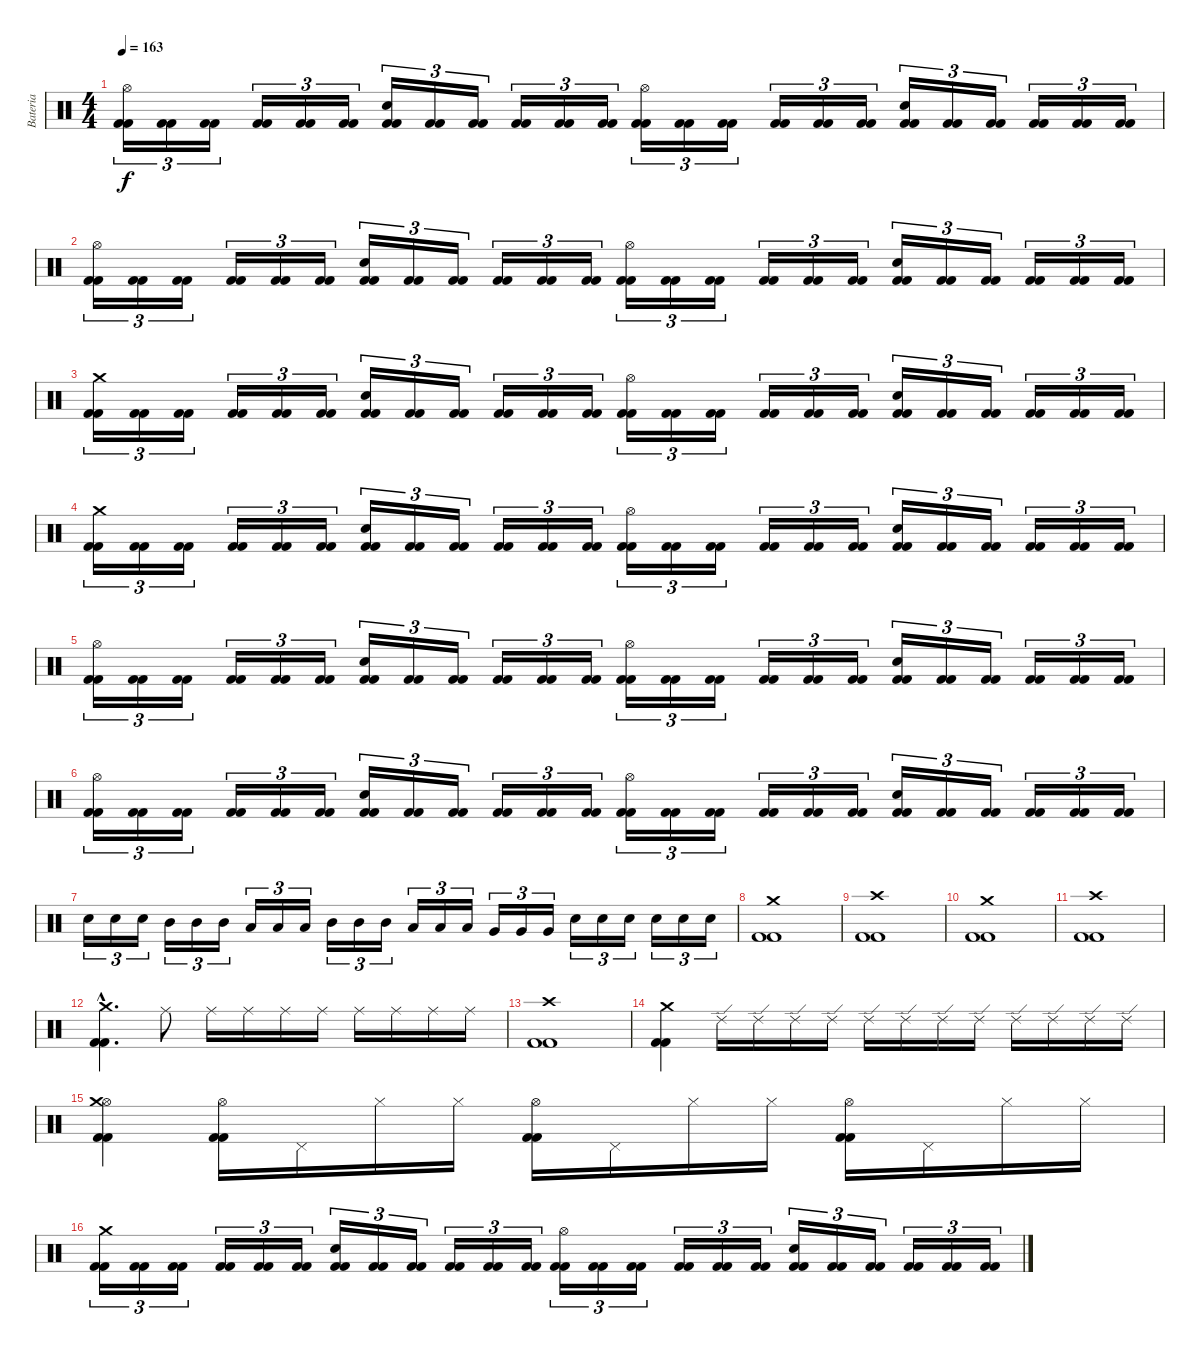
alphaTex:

\track ("Bateria" "Bateria") {instrument percussion}
\staff {score}
\articulation defaults
\ts (4 4)
\tempo 163
\clef neutral
\ks c
("Kick (hit) 2" "Kick (hit) 2" "Hi-Hat (open)").16{tu (3 2) dy f} ("Kick (hit) 2" "Kick (hit) 2").16{tu (3 2)} ("Kick (hit) 2" "Kick (hit) 2").16{tu (3 2)} ("Kick (hit) 2" "Kick (hit) 2").16{tu (3 2)} ("Kick (hit) 2" "Kick (hit) 2").16{tu (3 2)} ("Kick (hit) 2" "Kick (hit) 2").16{tu (3 2)} ("Kick (hit) 2" "Kick (hit) 2" "Snare (hit) 2").16{tu (3 2)} ("Kick (hit) 2" "Kick (hit) 2").16{tu (3 2)} ("Kick (hit) 2" "Kick (hit) 2").16{tu (3 2)} ("Kick (hit) 2" "Kick (hit) 2").16{tu (3 2)} ("Kick (hit) 2" "Kick (hit) 2").16{tu (3 2)} ("Kick (hit) 2" "Kick (hit) 2").16{tu (3 2)} ("Kick (hit) 2" "Kick (hit) 2" "Hi-Hat (open)").16{tu (3 2)} ("Kick (hit) 2" "Kick (hit) 2").16{tu (3 2)} ("Kick (hit) 2" "Kick (hit) 2").16{tu (3 2)} ("Kick (hit) 2" "Kick (hit) 2").16{tu (3 2)} ("Kick (hit) 2" "Kick (hit) 2").16{tu (3 2)} ("Kick (hit) 2" "Kick (hit) 2").16{tu (3 2)} ("Kick (hit) 2" "Kick (hit) 2" "Snare (hit) 2").16{tu (3 2)} ("Kick (hit) 2" "Kick (hit) 2").16{tu (3 2)} ("Kick (hit) 2" "Kick (hit) 2").16{tu (3 2)} ("Kick (hit) 2" "Kick (hit) 2").16{tu (3 2)} ("Kick (hit) 2" "Kick (hit) 2").16{tu (3 2)} ("Kick (hit) 2" "Kick (hit) 2").16{tu (3 2)} |
("Kick (hit) 2" "Kick (hit) 2" "Hi-Hat (open)").16{tu (3 2)} ("Kick (hit) 2" "Kick (hit) 2").16{tu (3 2)} ("Kick (hit) 2" "Kick (hit) 2").16{tu (3 2)} ("Kick (hit) 2" "Kick (hit) 2").16{tu (3 2)} ("Kick (hit) 2" "Kick (hit) 2").16{tu (3 2)} ("Kick (hit) 2" "Kick (hit) 2").16{tu (3 2)} ("Kick (hit) 2" "Kick (hit) 2" "Snare (hit) 2").16{tu (3 2)} ("Kick (hit) 2" "Kick (hit) 2").16{tu (3 2)} ("Kick (hit) 2" "Kick (hit) 2").16{tu (3 2)} ("Kick (hit) 2" "Kick (hit) 2").16{tu (3 2)} ("Kick (hit) 2" "Kick (hit) 2").16{tu (3 2)} ("Kick (hit) 2" "Kick (hit) 2").16{tu (3 2)} ("Kick (hit) 2" "Kick (hit) 2" "Hi-Hat (open)").16{tu (3 2)} ("Kick (hit) 2" "Kick (hit) 2").16{tu (3 2)} ("Kick (hit) 2" "Kick (hit) 2").16{tu (3 2)} ("Kick (hit) 2" "Kick (hit) 2").16{tu (3 2)} ("Kick (hit) 2" "Kick (hit) 2").16{tu (3 2)} ("Kick (hit) 2" "Kick (hit) 2").16{tu (3 2)} ("Kick (hit) 2" "Kick (hit) 2" "Snare (hit) 2").16{tu (3 2)} ("Kick (hit) 2" "Kick (hit) 2").16{tu (3 2)} ("Kick (hit) 2" "Kick (hit) 2").16{tu (3 2)} ("Kick (hit) 2" "Kick (hit) 2").16{tu (3 2)} ("Kick (hit) 2" "Kick (hit) 2").16{tu (3 2)} ("Kick (hit) 2" "Kick (hit) 2").16{tu (3 2)} |
("Kick (hit) 2" "Kick (hit) 2" "Crash medium (hit)").16{tu (3 2)} ("Kick (hit) 2" "Kick (hit) 2").16{tu (3 2)} ("Kick (hit) 2" "Kick (hit) 2").16{tu (3 2)} ("Kick (hit) 2" "Kick (hit) 2").16{tu (3 2)} ("Kick (hit) 2" "Kick (hit) 2").16{tu (3 2)} ("Kick (hit) 2" "Kick (hit) 2").16{tu (3 2)} ("Kick (hit) 2" "Kick (hit) 2" "Snare (hit) 2").16{tu (3 2)} ("Kick (hit) 2" "Kick (hit) 2").16{tu (3 2)} ("Kick (hit) 2" "Kick (hit) 2").16{tu (3 2)} ("Kick (hit) 2" "Kick (hit) 2").16{tu (3 2)} ("Kick (hit) 2" "Kick (hit) 2").16{tu (3 2)} ("Kick (hit) 2" "Kick (hit) 2").16{tu (3 2)} ("Kick (hit) 2" "Kick (hit) 2" "Hi-Hat (open)").16{tu (3 2)} ("Kick (hit) 2" "Kick (hit) 2").16{tu (3 2)} ("Kick (hit) 2" "Kick (hit) 2").16{tu (3 2)} ("Kick (hit) 2" "Kick (hit) 2").16{tu (3 2)} ("Kick (hit) 2" "Kick (hit) 2").16{tu (3 2)} ("Kick (hit) 2" "Kick (hit) 2").16{tu (3 2)} ("Kick (hit) 2" "Kick (hit) 2" "Snare (hit) 2").16{tu (3 2)} ("Kick (hit) 2" "Kick (hit) 2").16{tu (3 2)} ("Kick (hit) 2" "Kick (hit) 2").16{tu (3 2)} ("Kick (hit) 2" "Kick (hit) 2").16{tu (3 2)} ("Kick (hit) 2" "Kick (hit) 2").16{tu (3 2)} ("Kick (hit) 2" "Kick (hit) 2").16{tu (3 2)} |
("Kick (hit) 2" "Kick (hit) 2" "Crash medium (hit)").16{tu (3 2)} ("Kick (hit) 2" "Kick (hit) 2").16{tu (3 2)} ("Kick (hit) 2" "Kick (hit) 2").16{tu (3 2)} ("Kick (hit) 2" "Kick (hit) 2").16{tu (3 2)} ("Kick (hit) 2" "Kick (hit) 2").16{tu (3 2)} ("Kick (hit) 2" "Kick (hit) 2").16{tu (3 2)} ("Kick (hit) 2" "Kick (hit) 2" "Snare (hit) 2").16{tu (3 2)} ("Kick (hit) 2" "Kick (hit) 2").16{tu (3 2)} ("Kick (hit) 2" "Kick (hit) 2").16{tu (3 2)} ("Kick (hit) 2" "Kick (hit) 2").16{tu (3 2)} ("Kick (hit) 2" "Kick (hit) 2").16{tu (3 2)} ("Kick (hit) 2" "Kick (hit) 2").16{tu (3 2)} ("Kick (hit) 2" "Kick (hit) 2" "Hi-Hat (open)").16{tu (3 2)} ("Kick (hit) 2" "Kick (hit) 2").16{tu (3 2)} ("Kick (hit) 2" "Kick (hit) 2").16{tu (3 2)} ("Kick (hit) 2" "Kick (hit) 2").16{tu (3 2)} ("Kick (hit) 2" "Kick (hit) 2").16{tu (3 2)} ("Kick (hit) 2" "Kick (hit) 2").16{tu (3 2)} ("Kick (hit) 2" "Kick (hit) 2" "Snare (hit) 2").16{tu (3 2)} ("Kick (hit) 2" "Kick (hit) 2").16{tu (3 2)} ("Kick (hit) 2" "Kick (hit) 2").16{tu (3 2)} ("Kick (hit) 2" "Kick (hit) 2").16{tu (3 2)} ("Kick (hit) 2" "Kick (hit) 2").16{tu (3 2)} ("Kick (hit) 2" "Kick (hit) 2").16{tu (3 2)} |
("Kick (hit) 2" "Kick (hit) 2" "Hi-Hat (open)").16{tu (3 2)} ("Kick (hit) 2" "Kick (hit) 2").16{tu (3 2)} ("Kick (hit) 2" "Kick (hit) 2").16{tu (3 2)} ("Kick (hit) 2" "Kick (hit) 2").16{tu (3 2)} ("Kick (hit) 2" "Kick (hit) 2").16{tu (3 2)} ("Kick (hit) 2" "Kick (hit) 2").16{tu (3 2)} ("Kick (hit) 2" "Kick (hit) 2" "Snare (hit) 2").16{tu (3 2)} ("Kick (hit) 2" "Kick (hit) 2").16{tu (3 2)} ("Kick (hit) 2" "Kick (hit) 2").16{tu (3 2)} ("Kick (hit) 2" "Kick (hit) 2").16{tu (3 2)} ("Kick (hit) 2" "Kick (hit) 2").16{tu (3 2)} ("Kick (hit) 2" "Kick (hit) 2").16{tu (3 2)} ("Kick (hit) 2" "Kick (hit) 2" "Hi-Hat (open)").16{tu (3 2)} ("Kick (hit) 2" "Kick (hit) 2").16{tu (3 2)} ("Kick (hit) 2" "Kick (hit) 2").16{tu (3 2)} ("Kick (hit) 2" "Kick (hit) 2").16{tu (3 2)} ("Kick (hit) 2" "Kick (hit) 2").16{tu (3 2)} ("Kick (hit) 2" "Kick (hit) 2").16{tu (3 2)} ("Kick (hit) 2" "Kick (hit) 2" "Snare (hit) 2").16{tu (3 2)} ("Kick (hit) 2" "Kick (hit) 2").16{tu (3 2)} ("Kick (hit) 2" "Kick (hit) 2").16{tu (3 2)} ("Kick (hit) 2" "Kick (hit) 2").16{tu (3 2)} ("Kick (hit) 2" "Kick (hit) 2").16{tu (3 2)} ("Kick (hit) 2" "Kick (hit) 2").16{tu (3 2)} |
("Kick (hit) 2" "Kick (hit) 2" "Hi-Hat (open)").16{tu (3 2)} ("Kick (hit) 2" "Kick (hit) 2").16{tu (3 2)} ("Kick (hit) 2" "Kick (hit) 2").16{tu (3 2)} ("Kick (hit) 2" "Kick (hit) 2").16{tu (3 2)} ("Kick (hit) 2" "Kick (hit) 2").16{tu (3 2)} ("Kick (hit) 2" "Kick (hit) 2").16{tu (3 2)} ("Kick (hit) 2" "Kick (hit) 2" "Snare (hit) 2").16{tu (3 2)} ("Kick (hit) 2" "Kick (hit) 2").16{tu (3 2)} ("Kick (hit) 2" "Kick (hit) 2").16{tu (3 2)} ("Kick (hit) 2" "Kick (hit) 2").16{tu (3 2)} ("Kick (hit) 2" "Kick (hit) 2").16{tu (3 2)} ("Kick (hit) 2" "Kick (hit) 2").16{tu (3 2)} ("Kick (hit) 2" "Kick (hit) 2" "Hi-Hat (open)").16{tu (3 2)} ("Kick (hit) 2" "Kick (hit) 2").16{tu (3 2)} ("Kick (hit) 2" "Kick (hit) 2").16{tu (3 2)} ("Kick (hit) 2" "Kick (hit) 2").16{tu (3 2)} ("Kick (hit) 2" "Kick (hit) 2").16{tu (3 2)} ("Kick (hit) 2" "Kick (hit) 2").16{tu (3 2)} ("Kick (hit) 2" "Kick (hit) 2" "Snare (hit) 2").16{tu (3 2)} ("Kick (hit) 2" "Kick (hit) 2").16{tu (3 2)} ("Kick (hit) 2" "Kick (hit) 2").16{tu (3 2)} ("Kick (hit) 2" "Kick (hit) 2").16{tu (3 2)} ("Kick (hit) 2" "Kick (hit) 2").16{tu (3 2)} ("Kick (hit) 2" "Kick (hit) 2").16{tu (3 2)} |
"Snare (hit) 2".16{tu (3 2)} "Snare (hit) 2".16{tu (3 2)} "Snare (hit) 2".16{tu (3 2)} "Mid Tom (hit)".16{tu (3 2)} "Mid Tom (hit)".16{tu (3 2)} "Mid Tom (hit)".16{tu (3 2)} "Low Tom (hit)".16{tu (3 2)} "Low Tom (hit)".16{tu (3 2)} "Low Tom (hit)".16{tu (3 2)} "Mid Tom (hit)".16{tu (3 2)} "Mid Tom (hit)".16{tu (3 2)} "Mid Tom (hit)".16{tu (3 2)} "Low Tom (hit)".16{tu (3 2)} "Low Tom (hit)".16{tu (3 2)} "Low Tom (hit)".16{tu (3 2)} "Very Low Tom (hit)".16{tu (3 2)} "Very Low Tom (hit)".16{tu (3 2)} "Very Low Tom (hit)".16{tu (3 2)} "Snare (hit) 2".16{tu (3 2)} "Snare (hit) 2".16{tu (3 2)} "Snare (hit) 2".16{tu (3 2)} "Snare (hit) 2".16{tu (3 2)} "Snare (hit) 2".16{tu (3 2)} "Snare (hit) 2".16{tu (3 2)} |
("Kick (hit) 2" "Kick (hit) 2" "Crash medium (hit)").1 |
("Kick (hit) 2" "Kick (hit) 2" "Crash high (hit)").1 |
("Kick (hit) 2" "Kick (hit) 2" "Crash medium (hit)").1 |
("Kick (hit) 2" "Kick (hit) 2" "Crash high (hit)").1 |
("Kick (hit) 2"{hac} "Kick (hit) 2"{hac} "Crash medium (hit)"{hac}).4{d} "Ride (middle)".8 "Ride (middle)".16 "Ride (middle)".16 "Ride (middle)".16 "Ride (middle)".16 "Ride (middle)".16 "Ride (middle)".16 "Ride (middle)".16 "Ride (middle)".16 |
("Kick (hit) 2" "Kick (hit) 2" "Crash high (hit)").1 |
("Kick (hit) 2" "Kick (hit) 2" "Crash medium (hit)").4 "Ride (edge) 2".16 "Ride (edge) 2".16 "Ride (edge) 2".16 "Ride (edge) 2".16 "Ride (edge) 2".16 "Ride (edge) 2".16 "Ride (edge) 2".16 "Ride (edge) 2".16 "Ride (edge) 2".16 "Ride (edge) 2".16 "Ride (edge) 2".16 "Ride (edge) 2".16 |
("Kick (hit) 2" "Kick (hit) 2" "Hi-Hat (open)" "Crash medium (hit)").4 ("Kick (hit) 2" "Kick (hit) 2" "Hi-Hat (open)").16 "Pedal Hi-Hat (hit)".16 "Hi-Hat (closed)".16 "Hi-Hat (closed)".16 ("Kick (hit) 2" "Kick (hit) 2" "Hi-Hat (open)").16 "Pedal Hi-Hat (hit)".16 "Hi-Hat (closed)".16 "Hi-Hat (closed)".16 ("Kick (hit) 2" "Kick (hit) 2" "Hi-Hat (open)").16 "Pedal Hi-Hat (hit)".16 "Hi-Hat (closed)".16 "Hi-Hat (closed)".16 |
("Kick (hit) 2" "Kick (hit) 2" "Crash medium (hit)").16{tu (3 2)} ("Kick (hit) 2" "Kick (hit) 2").16{tu (3 2)} ("Kick (hit) 2" "Kick (hit) 2").16{tu (3 2)} ("Kick (hit) 2" "Kick (hit) 2").16{tu (3 2)} ("Kick (hit) 2" "Kick (hit) 2").16{tu (3 2)} ("Kick (hit) 2" "Kick (hit) 2").16{tu (3 2)} ("Kick (hit) 2" "Kick (hit) 2" "Snare (hit) 2").16{tu (3 2)} ("Kick (hit) 2" "Kick (hit) 2").16{tu (3 2)} ("Kick (hit) 2" "Kick (hit) 2").16{tu (3 2)} ("Kick (hit) 2" "Kick (hit) 2").16{tu (3 2)} ("Kick (hit) 2" "Kick (hit) 2").16{tu (3 2)} ("Kick (hit) 2" "Kick (hit) 2").16{tu (3 2)} ("Kick (hit) 2" "Kick (hit) 2" "Hi-Hat (open)").16{tu (3 2)} ("Kick (hit) 2" "Kick (hit) 2").16{tu (3 2)} ("Kick (hit) 2" "Kick (hit) 2").16{tu (3 2)} ("Kick (hit) 2" "Kick (hit) 2").16{tu (3 2)} ("Kick (hit) 2" "Kick (hit) 2").16{tu (3 2)} ("Kick (hit) 2" "Kick (hit) 2").16{tu (3 2)} ("Kick (hit) 2" "Kick (hit) 2" "Snare (hit) 2").16{tu (3 2)} ("Kick (hit) 2" "Kick (hit) 2").16{tu (3 2)} ("Kick (hit) 2" "Kick (hit) 2").16{tu (3 2)} ("Kick (hit) 2" "Kick (hit) 2").16{tu (3 2)} ("Kick (hit) 2" "Kick (hit) 2").16{tu (3 2)} ("Kick (hit) 2" "Kick (hit) 2").16{tu (3 2)}
